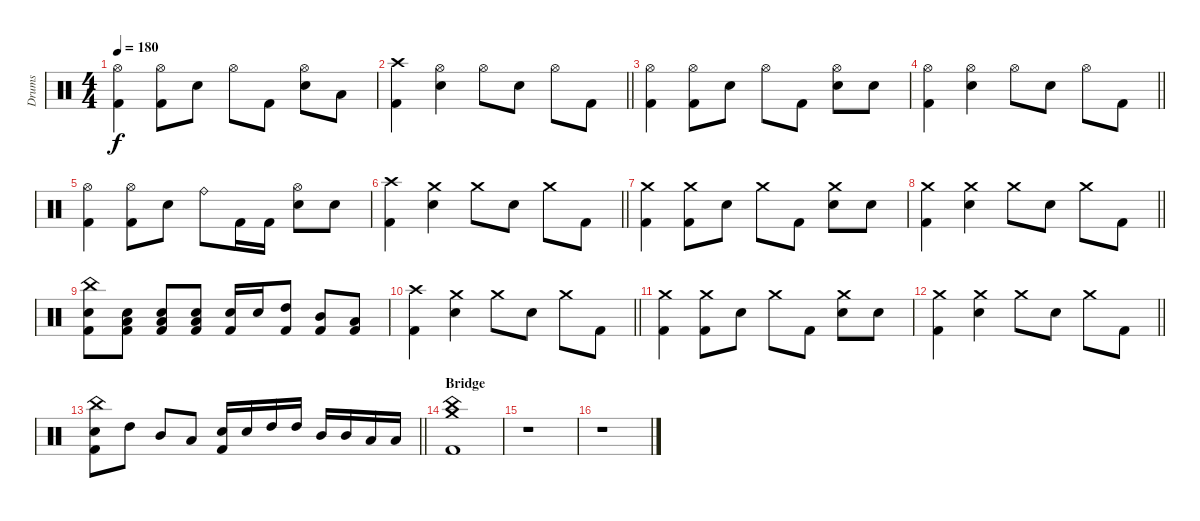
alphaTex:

\track ("Drums" "Drums") {instrument percussion}
\staff {score}
\articulation defaults
\ts (4 4)
\tempo 180
\clef neutral
\ks c
("Hi-Hat (open)" "Kick (hit) 2").4{dy f} ("Hi-Hat (open)" "Kick (hit) 2").8 "Snare (hit) 2".8 "Hi-Hat (open)".8 "Kick (hit) 2".8 ("Hi-Hat (open)" "Snare (hit) 2").8 "Low Tom (hit)".8 |
\barLineRight lightlight
("Crash high (hit)" "Kick (hit) 2").4 ("Hi-Hat (open)" "Snare (hit) 2").4 "Hi-Hat (open)".8 "Snare (hit) 2".8 "Hi-Hat (open)".8 "Kick (hit) 2".8 |
("Hi-Hat (open)" "Kick (hit) 2").4 ("Hi-Hat (open)" "Kick (hit) 2").8 "Snare (hit) 2".8 "Hi-Hat (open)".8 "Kick (hit) 2".8 ("Hi-Hat (open)" "Snare (hit) 2").8 "Snare (hit) 2".8 |
\barLineRight lightlight
("Hi-Hat (open)" "Kick (hit) 2").4 ("Hi-Hat (open)" "Snare (hit) 2").4 "Hi-Hat (open)".8 "Snare (hit) 2".8 "Hi-Hat (open)".8 "Kick (hit) 2".8 |
("Hi-Hat (open)" "Kick (hit) 2").4 ("Hi-Hat (open)" "Kick (hit) 2").8 "Snare (hit) 2".8 "Ride (bell)".8 "Kick (hit) 2".16 "Kick (hit) 2".16 ("Hi-Hat (open)" "Snare (hit) 2").8 "Snare (hit) 2".8 |
\barLineRight lightlight
("Crash high (hit)" "Kick (hit) 2").4 ("Crash medium (hit)" "Snare (hit) 2").4 "Crash medium (hit)".8 "Snare (hit) 2".8 "Crash medium (hit)".8 "Kick (hit) 2".8 |
("Crash medium (hit)" "Kick (hit) 2").4 ("Crash medium (hit)" "Kick (hit) 2").8 "Snare (hit) 2".8 "Crash medium (hit)".8 "Kick (hit) 2".8 ("Crash medium (hit)" "Snare (hit) 2").8 "Snare (hit) 2".8 |
\barLineRight lightlight
("Crash medium (hit)" "Kick (hit) 2").4 ("Crash medium (hit)" "Snare (hit) 2").4 "Crash medium (hit)".8 "Snare (hit) 2".8 "Crash medium (hit)".8 "Kick (hit) 2".8 |
("China (hit)" "Snare (hit) 2" "Kick (hit) 2").8 ("Low Tom (hit)" "Snare (hit) 2" "Kick (hit) 2").8 ("Low Tom (hit)" "Snare (hit) 2" "Kick (hit) 2").8 ("Low Tom (hit)" "Snare (hit) 2" "Kick (hit) 2").8 ("Snare (hit) 2" "Kick (hit) 2").16 "Snare (hit) 2".16 ("High Tom (hit)" "Kick (hit) 2").8 ("Mid Tom (hit)" "Kick (hit) 2").8 ("Low Tom (hit)" "Kick (hit) 2").8 |
\barLineRight lightlight
("Crash high (hit)" "Kick (hit) 2").4 ("Crash medium (hit)" "Snare (hit) 2").4 "Crash medium (hit)".8 "Snare (hit) 2".8 "Crash medium (hit)".8 "Kick (hit) 2".8 |
("Crash medium (hit)" "Kick (hit) 2").4 ("Crash medium (hit)" "Kick (hit) 2").8 "Snare (hit) 2".8 "Crash medium (hit)".8 "Kick (hit) 2".8 ("Crash medium (hit)" "Snare (hit) 2").8 "Snare (hit) 2".8 |
\barLineRight lightlight
("Crash medium (hit)" "Kick (hit) 2").4 ("Crash medium (hit)" "Snare (hit) 2").4 "Crash medium (hit)".8 "Snare (hit) 2".8 "Crash medium (hit)".8 "Kick (hit) 2".8 |
\barLineRight lightlight
("China (hit)" "Snare (hit) 2" "Kick (hit) 2").8 "High Tom (hit)".8 "Mid Tom (hit)".8 "Low Tom (hit)".8 ("Snare (hit) 2" "Kick (hit) 2").16 "Snare (hit) 2".16 "High Tom (hit)".16 "High Tom (hit)".16 "Mid Tom (hit)".16 "Mid Tom (hit)".16 "Low Tom (hit)".16 "Low Tom (hit)".16 |
\section ("" "Bridge")
("China (hit)" "Crash medium (hit)" "Kick (hit) 2").1 |
r.1 |
r.1
